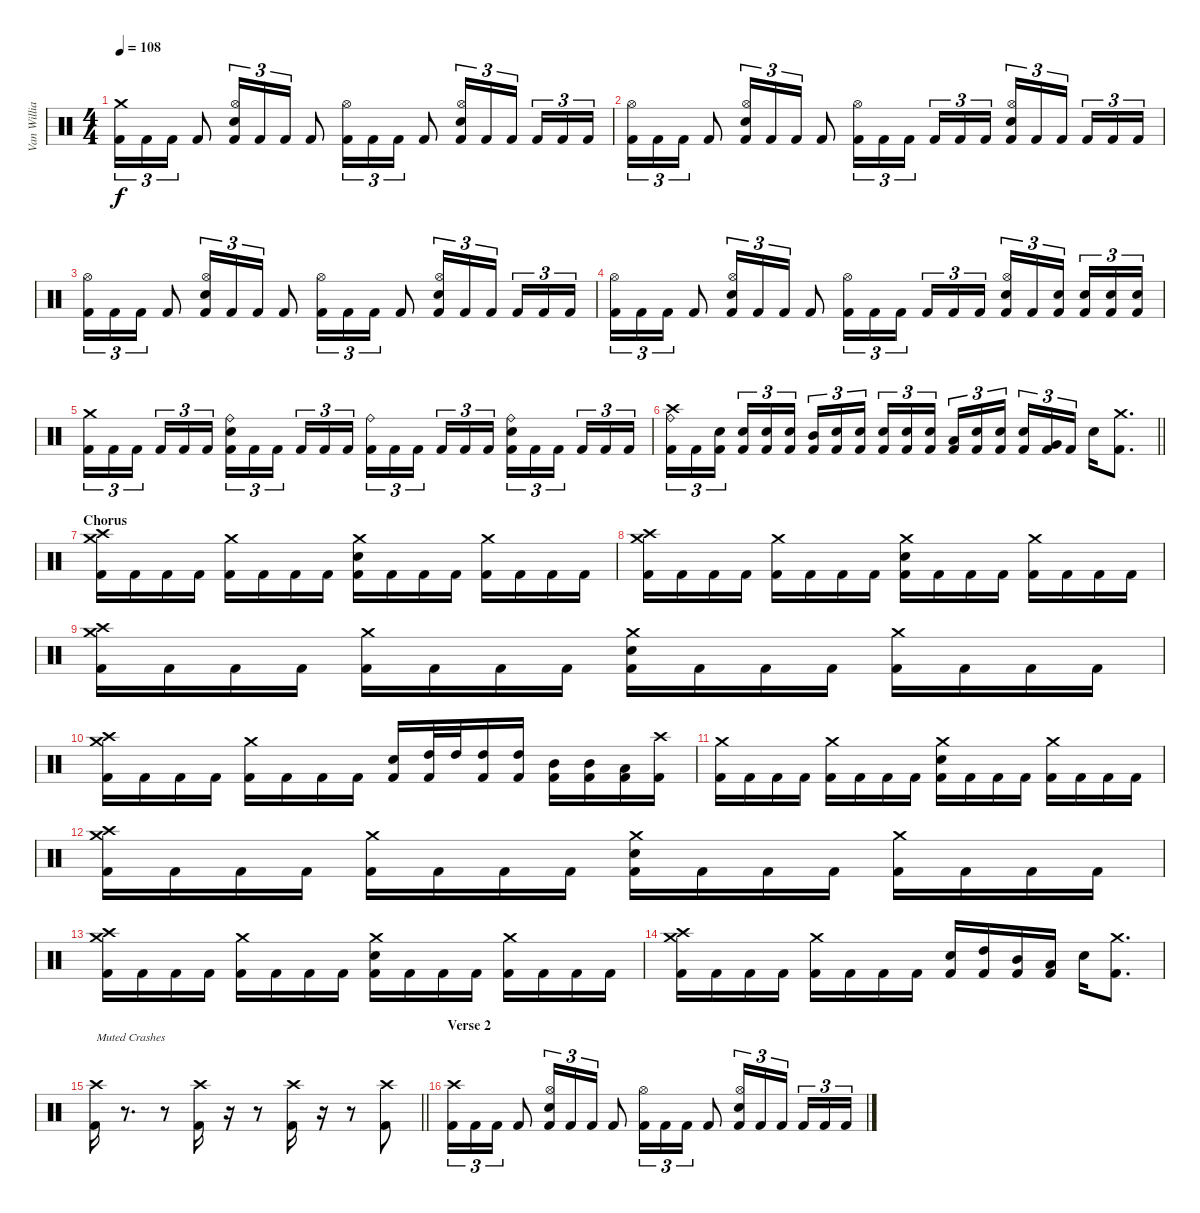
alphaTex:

\track ("Van Williams" "Van Willia") {instrument percussion}
\staff {score}
\articulation defaults
\ts (4 4)
\tempo 108
\clef neutral
\ks c
("Crash medium (hit)" "Kick (hit) 2").16{tu (3 2) dy f} "Kick (hit) 2".16{tu (3 2)} "Kick (hit) 2".16{tu (3 2)} "Kick (hit) 2".8 ("Hi-Hat (open)" "Snare (hit) 2" "Kick (hit) 2").16{tu (3 2)} "Kick (hit) 2".16{tu (3 2)} "Kick (hit) 2".16{tu (3 2)} "Kick (hit) 2".8 ("Hi-Hat (open)" "Kick (hit) 2").16{tu (3 2)} "Kick (hit) 2".16{tu (3 2)} "Kick (hit) 2".16{tu (3 2)} "Kick (hit) 2".8 ("Hi-Hat (open)" "Snare (hit) 2" "Kick (hit) 2").16{tu (3 2)} "Kick (hit) 2".16{tu (3 2)} "Kick (hit) 2".16{tu (3 2) beam splitsecondary} "Kick (hit) 2".16{tu (3 2)} "Kick (hit) 2".16{tu (3 2)} "Kick (hit) 2".16{tu (3 2)} |
("Hi-Hat (open)" "Kick (hit) 2").16{tu (3 2)} "Kick (hit) 2".16{tu (3 2)} "Kick (hit) 2".16{tu (3 2)} "Kick (hit) 2".8 ("Hi-Hat (open)" "Snare (hit) 2" "Kick (hit) 2").16{tu (3 2)} "Kick (hit) 2".16{tu (3 2)} "Kick (hit) 2".16{tu (3 2)} "Kick (hit) 2".8 ("Hi-Hat (open)" "Kick (hit) 2").16{tu (3 2)} "Kick (hit) 2".16{tu (3 2)} "Kick (hit) 2".16{tu (3 2) beam splitsecondary} "Kick (hit) 2".16{tu (3 2)} "Kick (hit) 2".16{tu (3 2)} "Kick (hit) 2".16{tu (3 2)} ("Hi-Hat (open)" "Snare (hit) 2" "Kick (hit) 2").16{tu (3 2)} "Kick (hit) 2".16{tu (3 2)} "Kick (hit) 2".16{tu (3 2) beam splitsecondary} "Kick (hit) 2".16{tu (3 2)} "Kick (hit) 2".16{tu (3 2)} "Kick (hit) 2".16{tu (3 2)} |
("Hi-Hat (open)" "Kick (hit) 2").16{tu (3 2)} "Kick (hit) 2".16{tu (3 2)} "Kick (hit) 2".16{tu (3 2)} "Kick (hit) 2".8 ("Hi-Hat (open)" "Snare (hit) 2" "Kick (hit) 2").16{tu (3 2)} "Kick (hit) 2".16{tu (3 2)} "Kick (hit) 2".16{tu (3 2)} "Kick (hit) 2".8 ("Hi-Hat (open)" "Kick (hit) 2").16{tu (3 2)} "Kick (hit) 2".16{tu (3 2)} "Kick (hit) 2".16{tu (3 2)} "Kick (hit) 2".8 ("Hi-Hat (open)" "Snare (hit) 2" "Kick (hit) 2").16{tu (3 2)} "Kick (hit) 2".16{tu (3 2)} "Kick (hit) 2".16{tu (3 2) beam splitsecondary} "Kick (hit) 2".16{tu (3 2)} "Kick (hit) 2".16{tu (3 2)} "Kick (hit) 2".16{tu (3 2)} |
("Hi-Hat (open)" "Kick (hit) 2").16{tu (3 2)} "Kick (hit) 2".16{tu (3 2)} "Kick (hit) 2".16{tu (3 2)} "Kick (hit) 2".8 ("Hi-Hat (open)" "Snare (hit) 2" "Kick (hit) 2").16{tu (3 2)} "Kick (hit) 2".16{tu (3 2)} "Kick (hit) 2".16{tu (3 2)} "Kick (hit) 2".8 ("Hi-Hat (open)" "Kick (hit) 2").16{tu (3 2)} "Kick (hit) 2".16{tu (3 2)} "Kick (hit) 2".16{tu (3 2) beam splitsecondary} "Kick (hit) 2".16{tu (3 2)} "Kick (hit) 2".16{tu (3 2)} "Kick (hit) 2".16{tu (3 2)} ("Hi-Hat (open)" "Snare (hit) 2" "Kick (hit) 2").16{tu (3 2)} "Kick (hit) 2".16{tu (3 2)} ("Snare (hit) 2" "Kick (hit) 2").16{tu (3 2) beam splitsecondary} ("Snare (hit) 2" "Kick (hit) 2").16{tu (3 2)} ("Snare (hit) 2" "Kick (hit) 2").16{tu (3 2)} ("Snare (hit) 2" "Kick (hit) 2").16{tu (3 2)} |
("Crash medium (hit)" "Kick (hit) 2").16{tu (3 2)} "Kick (hit) 2".16{tu (3 2)} "Kick (hit) 2".16{tu (3 2) beam splitsecondary} "Kick (hit) 2".16{tu (3 2)} "Kick (hit) 2".16{tu (3 2)} "Kick (hit) 2".16{tu (3 2)} ("Ride (bell)" "Snare (hit) 2" "Kick (hit) 2").16{tu (3 2)} "Kick (hit) 2".16{tu (3 2)} "Kick (hit) 2".16{tu (3 2) beam splitsecondary} "Kick (hit) 2".16{tu (3 2)} "Kick (hit) 2".16{tu (3 2)} "Kick (hit) 2".16{tu (3 2)} ("Ride (bell)" "Kick (hit) 2").16{tu (3 2)} "Kick (hit) 2".16{tu (3 2)} "Kick (hit) 2".16{tu (3 2) beam splitsecondary} "Kick (hit) 2".16{tu (3 2)} "Kick (hit) 2".16{tu (3 2)} "Kick (hit) 2".16{tu (3 2)} ("Ride (bell)" "Snare (hit) 2" "Kick (hit) 2").16{tu (3 2)} "Kick (hit) 2".16{tu (3 2)} "Kick (hit) 2".16{tu (3 2) beam splitsecondary} "Kick (hit) 2".16{tu (3 2)} "Kick (hit) 2".16{tu (3 2)} "Kick (hit) 2".16{tu (3 2)} |
\barLineRight lightlight
("Crash high (hit)" "Ride (bell)" "Kick (hit) 2").16{tu (3 2)} "Kick (hit) 2".16{tu (3 2)} ("Snare (hit) 2" "Kick (hit) 2").16{tu (3 2) beam splitsecondary} ("Snare (hit) 2" "Kick (hit) 2").16{tu (3 2)} ("Snare (hit) 2" "Kick (hit) 2").16{tu (3 2)} ("Snare (hit) 2" "Kick (hit) 2").16{tu (3 2)} ("Mid Tom (hit)" "Kick (hit) 2").16{tu (3 2)} ("Snare (hit) 2" "Kick (hit) 2").16{tu (3 2)} ("Snare (hit) 2" "Kick (hit) 2").16{tu (3 2) beam splitsecondary} ("Snare (hit) 2" "Kick (hit) 2").16{tu (3 2)} ("Snare (hit) 2" "Kick (hit) 2").16{tu (3 2)} ("Snare (hit) 2" "Kick (hit) 2").16{tu (3 2)} ("Low Tom (hit)" "Kick (hit) 2").16{tu (3 2)} ("Snare (hit) 2" "Kick (hit) 2").16{tu (3 2)} ("Snare (hit) 2" "Kick (hit) 2").16{tu (3 2) beam splitsecondary} ("Snare (hit) 2" "Kick (hit) 2").16{tu (3 2)} ("Very Low Tom (hit)" "Kick (hit) 2").16{tu (3 2)} "Kick (hit) 2".16{tu (3 2)} "Snare (hit) 2".16 ("Crash medium (hit)" "Kick (hit) 2").8{d} |
\section ("" "Chorus")
("Crash high (hit)" "Crash medium (hit)" "Kick (hit) 2").16 "Kick (hit) 2".16 "Kick (hit) 2".16 "Kick (hit) 2".16 ("Crash medium (hit)" "Kick (hit) 2").16 "Kick (hit) 2".16 "Kick (hit) 2".16 "Kick (hit) 2".16 ("Crash medium (hit)" "Snare (hit) 2" "Kick (hit) 2").16 "Kick (hit) 2".16 "Kick (hit) 2".16 "Kick (hit) 2".16 ("Crash medium (hit)" "Kick (hit) 2").16 "Kick (hit) 2".16 "Kick (hit) 2".16 "Kick (hit) 2".16 |
("Crash high (hit)" "Crash medium (hit)" "Kick (hit) 2").16 "Kick (hit) 2".16 "Kick (hit) 2".16 "Kick (hit) 2".16 ("Crash medium (hit)" "Kick (hit) 2").16 "Kick (hit) 2".16 "Kick (hit) 2".16 "Kick (hit) 2".16 ("Crash medium (hit)" "Snare (hit) 2" "Kick (hit) 2").16 "Kick (hit) 2".16 "Kick (hit) 2".16 "Kick (hit) 2".16 ("Crash medium (hit)" "Kick (hit) 2").16 "Kick (hit) 2".16 "Kick (hit) 2".16 "Kick (hit) 2".16 |
("Crash high (hit)" "Crash medium (hit)" "Kick (hit) 2").16 "Kick (hit) 2".16 "Kick (hit) 2".16 "Kick (hit) 2".16 ("Crash medium (hit)" "Kick (hit) 2").16 "Kick (hit) 2".16 "Kick (hit) 2".16 "Kick (hit) 2".16 ("Crash medium (hit)" "Snare (hit) 2" "Kick (hit) 2").16 "Kick (hit) 2".16 "Kick (hit) 2".16 "Kick (hit) 2".16 ("Crash medium (hit)" "Kick (hit) 2").16 "Kick (hit) 2".16 "Kick (hit) 2".16 "Kick (hit) 2".16 |
("Crash high (hit)" "Crash medium (hit)" "Kick (hit) 2").16 "Kick (hit) 2".16 "Kick (hit) 2".16 "Kick (hit) 2".16 ("Crash medium (hit)" "Kick (hit) 2").16 "Kick (hit) 2".16 "Kick (hit) 2".16 "Kick (hit) 2".16 ("Snare (hit) 2" "Kick (hit) 2").16 ("High Tom (hit)" "Kick (hit) 2").32 "High Tom (hit)".32 ("High Tom (hit)" "Kick (hit) 2").16 ("High Tom (hit)" "Kick (hit) 2").16 ("Mid Tom (hit)" "Kick (hit) 2").16 ("Mid Tom (hit)" "Kick (hit) 2").16 ("Low Tom (hit)" "Kick (hit) 2").16 ("Crash high (hit)" "Kick (hit) 2").16 |
("Crash medium (hit)" "Kick (hit) 2").16 "Kick (hit) 2".16 "Kick (hit) 2".16 "Kick (hit) 2".16 ("Crash medium (hit)" "Kick (hit) 2").16 "Kick (hit) 2".16 "Kick (hit) 2".16 "Kick (hit) 2".16 ("Crash medium (hit)" "Snare (hit) 2" "Kick (hit) 2").16 "Kick (hit) 2".16 "Kick (hit) 2".16 "Kick (hit) 2".16 ("Crash medium (hit)" "Kick (hit) 2").16 "Kick (hit) 2".16 "Kick (hit) 2".16 "Kick (hit) 2".16 |
("Crash high (hit)" "Crash medium (hit)" "Kick (hit) 2").16 "Kick (hit) 2".16 "Kick (hit) 2".16 "Kick (hit) 2".16 ("Crash medium (hit)" "Kick (hit) 2").16 "Kick (hit) 2".16 "Kick (hit) 2".16 "Kick (hit) 2".16 ("Crash medium (hit)" "Snare (hit) 2" "Kick (hit) 2").16 "Kick (hit) 2".16 "Kick (hit) 2".16 "Kick (hit) 2".16 ("Crash medium (hit)" "Kick (hit) 2").16 "Kick (hit) 2".16 "Kick (hit) 2".16 "Kick (hit) 2".16 |
("Crash high (hit)" "Crash medium (hit)" "Kick (hit) 2").16 "Kick (hit) 2".16 "Kick (hit) 2".16 "Kick (hit) 2".16 ("Crash medium (hit)" "Kick (hit) 2").16 "Kick (hit) 2".16 "Kick (hit) 2".16 "Kick (hit) 2".16 ("Crash medium (hit)" "Snare (hit) 2" "Kick (hit) 2").16 "Kick (hit) 2".16 "Kick (hit) 2".16 "Kick (hit) 2".16 ("Crash medium (hit)" "Kick (hit) 2").16 "Kick (hit) 2".16 "Kick (hit) 2".16 "Kick (hit) 2".16 |
("Crash high (hit)" "Crash medium (hit)" "Kick (hit) 2").16 "Kick (hit) 2".16 "Kick (hit) 2".16 "Kick (hit) 2".16 ("Crash medium (hit)" "Kick (hit) 2").16 "Kick (hit) 2".16 "Kick (hit) 2".16 "Kick (hit) 2".16 ("Snare (hit) 2" "Kick (hit) 2").16 ("High Tom (hit)" "Kick (hit) 2").16 ("Mid Tom (hit)" "Kick (hit) 2").16 ("Low Tom (hit)" "Kick (hit) 2").16 "Snare (hit) 2".16 ("Crash medium (hit)" "Kick (hit) 2").8{d} |
\barLineRight lightlight
("Crash high (hit)" "Kick (hit) 2").16{txt "Muted Crashes"} r.8{d volume 0} r.8 ("Crash high (hit)" "Kick (hit) 2").16{volume 13} r.16{volume 0} r.8 ("Crash high (hit)" "Kick (hit) 2").16{volume 13} r.16{volume 0} r.8 ("Crash high (hit)" "Kick (hit) 2").8{volume 13} |
\section ("" "Verse 2")
("Crash high (hit)" "Kick (hit) 2").16{tu (3 2)} "Kick (hit) 2".16{tu (3 2)} "Kick (hit) 2".16{tu (3 2)} "Kick (hit) 2".8 ("Hi-Hat (open)" "Snare (hit) 2" "Kick (hit) 2").16{tu (3 2)} "Kick (hit) 2".16{tu (3 2)} "Kick (hit) 2".16{tu (3 2)} "Kick (hit) 2".8 ("Hi-Hat (open)" "Kick (hit) 2").16{tu (3 2)} "Kick (hit) 2".16{tu (3 2)} "Kick (hit) 2".16{tu (3 2)} "Kick (hit) 2".8 ("Hi-Hat (open)" "Snare (hit) 2" "Kick (hit) 2").16{tu (3 2)} "Kick (hit) 2".16{tu (3 2)} "Kick (hit) 2".16{tu (3 2) beam splitsecondary} "Kick (hit) 2".16{tu (3 2)} "Kick (hit) 2".16{tu (3 2)} "Kick (hit) 2".16{tu (3 2)}
